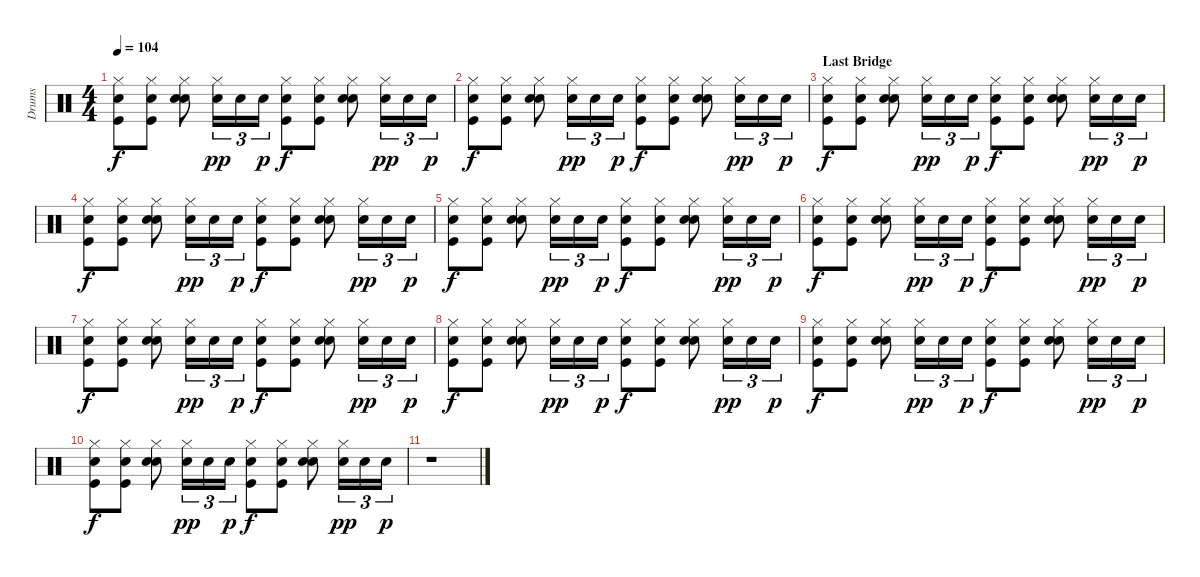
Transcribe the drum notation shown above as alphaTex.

\track ("Drums" "Drums") {instrument percussion}
\staff {score}
\articulation defaults
\ts (4 4)
\tempo 104
\clef neutral
\ks c
("Hi-Hat (closed)" "Electric Snare (hit)" "Kick (hit)").8{dy f} ("Hi-Hat (closed)" "Electric Snare (hit)" "Kick (hit)").8 ("Hi-Hat (closed)" "Hand Clap (hit)" "Electric Snare (hit)").8 ("Hi-Hat (closed)" "Electric Snare (hit)").16{tu (3 2) dy pp} "Electric Snare (hit)".16{tu (3 2)} "Electric Snare (hit)".16{tu (3 2) dy p} ("Hi-Hat (closed)" "Electric Snare (hit)" "Kick (hit)").8{dy f} ("Hi-Hat (closed)" "Electric Snare (hit)" "Kick (hit)").8 ("Hi-Hat (closed)" "Hand Clap (hit)" "Electric Snare (hit)").8 ("Hi-Hat (closed)" "Electric Snare (hit)").16{tu (3 2) dy pp} "Electric Snare (hit)".16{tu (3 2)} "Electric Snare (hit)".16{tu (3 2) dy p} |
("Hi-Hat (closed)" "Electric Snare (hit)" "Kick (hit)").8{dy f} ("Hi-Hat (closed)" "Electric Snare (hit)" "Kick (hit)").8 ("Hi-Hat (closed)" "Hand Clap (hit)" "Electric Snare (hit)").8 ("Hi-Hat (closed)" "Electric Snare (hit)").16{tu (3 2) dy pp} "Electric Snare (hit)".16{tu (3 2)} "Electric Snare (hit)".16{tu (3 2) dy p} ("Hi-Hat (closed)" "Electric Snare (hit)" "Kick (hit)").8{dy f} ("Hi-Hat (closed)" "Electric Snare (hit)" "Kick (hit)").8 ("Hi-Hat (closed)" "Hand Clap (hit)" "Electric Snare (hit)").8 ("Hi-Hat (closed)" "Electric Snare (hit)").16{tu (3 2) dy pp} "Electric Snare (hit)".16{tu (3 2)} "Electric Snare (hit)".16{tu (3 2) dy p} |
\section ("" "Last Bridge")
("Hi-Hat (closed)" "Electric Snare (hit)" "Kick (hit)").8{dy f} ("Hi-Hat (closed)" "Electric Snare (hit)" "Kick (hit)").8 ("Hi-Hat (closed)" "Hand Clap (hit)" "Electric Snare (hit)").8 ("Hi-Hat (closed)" "Electric Snare (hit)").16{tu (3 2) dy pp} "Electric Snare (hit)".16{tu (3 2)} "Electric Snare (hit)".16{tu (3 2) dy p} ("Hi-Hat (closed)" "Electric Snare (hit)" "Kick (hit)").8{dy f} ("Hi-Hat (closed)" "Electric Snare (hit)" "Kick (hit)").8 ("Hi-Hat (closed)" "Hand Clap (hit)" "Electric Snare (hit)").8 ("Hi-Hat (closed)" "Electric Snare (hit)").16{tu (3 2) dy pp} "Electric Snare (hit)".16{tu (3 2)} "Electric Snare (hit)".16{tu (3 2) dy p} |
("Hi-Hat (closed)" "Electric Snare (hit)" "Kick (hit)").8{dy f} ("Hi-Hat (closed)" "Electric Snare (hit)" "Kick (hit)").8 ("Hi-Hat (closed)" "Hand Clap (hit)" "Electric Snare (hit)").8 ("Hi-Hat (closed)" "Electric Snare (hit)").16{tu (3 2) dy pp} "Electric Snare (hit)".16{tu (3 2)} "Electric Snare (hit)".16{tu (3 2) dy p} ("Hi-Hat (closed)" "Electric Snare (hit)" "Kick (hit)").8{dy f} ("Hi-Hat (closed)" "Electric Snare (hit)" "Kick (hit)").8 ("Hi-Hat (closed)" "Hand Clap (hit)" "Electric Snare (hit)").8 ("Hi-Hat (closed)" "Electric Snare (hit)").16{tu (3 2) dy pp} "Electric Snare (hit)".16{tu (3 2)} "Electric Snare (hit)".16{tu (3 2) dy p} |
("Hi-Hat (closed)" "Electric Snare (hit)" "Kick (hit)").8{dy f} ("Hi-Hat (closed)" "Electric Snare (hit)" "Kick (hit)").8 ("Hi-Hat (closed)" "Hand Clap (hit)" "Electric Snare (hit)").8 ("Hi-Hat (closed)" "Electric Snare (hit)").16{tu (3 2) dy pp} "Electric Snare (hit)".16{tu (3 2)} "Electric Snare (hit)".16{tu (3 2) dy p} ("Hi-Hat (closed)" "Electric Snare (hit)" "Kick (hit)").8{dy f} ("Hi-Hat (closed)" "Electric Snare (hit)" "Kick (hit)").8 ("Hi-Hat (closed)" "Hand Clap (hit)" "Electric Snare (hit)").8 ("Hi-Hat (closed)" "Electric Snare (hit)").16{tu (3 2) dy pp} "Electric Snare (hit)".16{tu (3 2)} "Electric Snare (hit)".16{tu (3 2) dy p} |
("Hi-Hat (closed)" "Electric Snare (hit)" "Kick (hit)").8{dy f} ("Hi-Hat (closed)" "Electric Snare (hit)" "Kick (hit)").8 ("Hi-Hat (closed)" "Hand Clap (hit)" "Electric Snare (hit)").8 ("Hi-Hat (closed)" "Electric Snare (hit)").16{tu (3 2) dy pp} "Electric Snare (hit)".16{tu (3 2)} "Electric Snare (hit)".16{tu (3 2) dy p} ("Hi-Hat (closed)" "Electric Snare (hit)" "Kick (hit)").8{dy f} ("Hi-Hat (closed)" "Electric Snare (hit)" "Kick (hit)").8 ("Hi-Hat (closed)" "Hand Clap (hit)" "Electric Snare (hit)").8 ("Hi-Hat (closed)" "Electric Snare (hit)").16{tu (3 2) dy pp} "Electric Snare (hit)".16{tu (3 2)} "Electric Snare (hit)".16{tu (3 2) dy p} |
("Hi-Hat (closed)" "Electric Snare (hit)" "Kick (hit)").8{dy f} ("Hi-Hat (closed)" "Electric Snare (hit)" "Kick (hit)").8 ("Hi-Hat (closed)" "Hand Clap (hit)" "Electric Snare (hit)").8 ("Hi-Hat (closed)" "Electric Snare (hit)").16{tu (3 2) dy pp} "Electric Snare (hit)".16{tu (3 2)} "Electric Snare (hit)".16{tu (3 2) dy p} ("Hi-Hat (closed)" "Electric Snare (hit)" "Kick (hit)").8{dy f} ("Hi-Hat (closed)" "Electric Snare (hit)" "Kick (hit)").8 ("Hi-Hat (closed)" "Hand Clap (hit)" "Electric Snare (hit)").8 ("Hi-Hat (closed)" "Electric Snare (hit)").16{tu (3 2) dy pp} "Electric Snare (hit)".16{tu (3 2)} "Electric Snare (hit)".16{tu (3 2) dy p} |
("Hi-Hat (closed)" "Electric Snare (hit)" "Kick (hit)").8{dy f} ("Hi-Hat (closed)" "Electric Snare (hit)" "Kick (hit)").8 ("Hi-Hat (closed)" "Hand Clap (hit)" "Electric Snare (hit)").8 ("Hi-Hat (closed)" "Electric Snare (hit)").16{tu (3 2) dy pp} "Electric Snare (hit)".16{tu (3 2)} "Electric Snare (hit)".16{tu (3 2) dy p} ("Hi-Hat (closed)" "Electric Snare (hit)" "Kick (hit)").8{dy f} ("Hi-Hat (closed)" "Electric Snare (hit)" "Kick (hit)").8 ("Hi-Hat (closed)" "Hand Clap (hit)" "Electric Snare (hit)").8 ("Hi-Hat (closed)" "Electric Snare (hit)").16{tu (3 2) dy pp} "Electric Snare (hit)".16{tu (3 2)} "Electric Snare (hit)".16{tu (3 2) dy p} |
("Hi-Hat (closed)" "Electric Snare (hit)" "Kick (hit)").8{dy f} ("Hi-Hat (closed)" "Electric Snare (hit)" "Kick (hit)").8 ("Hi-Hat (closed)" "Hand Clap (hit)" "Electric Snare (hit)").8 ("Hi-Hat (closed)" "Electric Snare (hit)").16{tu (3 2) dy pp} "Electric Snare (hit)".16{tu (3 2)} "Electric Snare (hit)".16{tu (3 2) dy p} ("Hi-Hat (closed)" "Electric Snare (hit)" "Kick (hit)").8{dy f} ("Hi-Hat (closed)" "Electric Snare (hit)" "Kick (hit)").8 ("Hi-Hat (closed)" "Hand Clap (hit)" "Electric Snare (hit)").8 ("Hi-Hat (closed)" "Electric Snare (hit)").16{tu (3 2) dy pp} "Electric Snare (hit)".16{tu (3 2)} "Electric Snare (hit)".16{tu (3 2) dy p} |
("Hi-Hat (closed)" "Electric Snare (hit)" "Kick (hit)").8{dy f} ("Hi-Hat (closed)" "Electric Snare (hit)" "Kick (hit)").8 ("Hi-Hat (closed)" "Hand Clap (hit)" "Electric Snare (hit)").8 ("Hi-Hat (closed)" "Electric Snare (hit)").16{tu (3 2) dy pp} "Electric Snare (hit)".16{tu (3 2)} "Electric Snare (hit)".16{tu (3 2) dy p} ("Hi-Hat (closed)" "Electric Snare (hit)" "Kick (hit)").8{dy f} ("Hi-Hat (closed)" "Electric Snare (hit)" "Kick (hit)").8 ("Hi-Hat (closed)" "Hand Clap (hit)" "Electric Snare (hit)").8 ("Hi-Hat (closed)" "Electric Snare (hit)").16{tu (3 2) dy pp} "Electric Snare (hit)".16{tu (3 2)} "Electric Snare (hit)".16{tu (3 2) dy p} |
r.1
